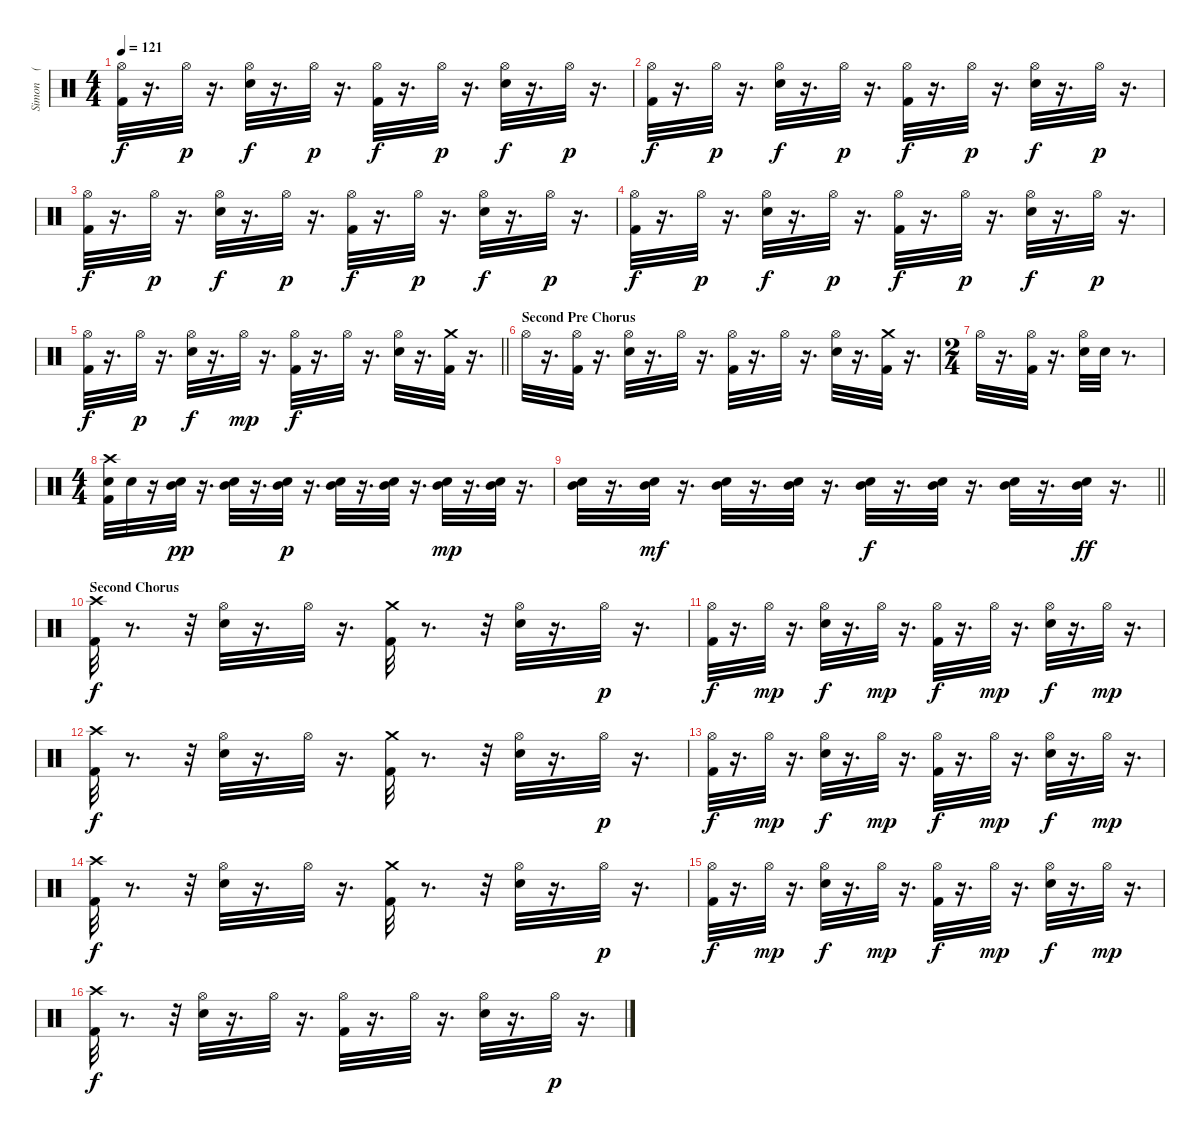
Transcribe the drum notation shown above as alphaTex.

\track ("Simon    (Drums)" "Simon    (") {instrument percussion}
\staff {score}
\articulation defaults
\ts (4 4)
\tempo 121
\clef neutral
\ks c
("Hi-Hat (open)" "Kick (hit) 2").32{dy f} r.16{d} "Hi-Hat (open)".32{dy p} r.16{d} ("Hi-Hat (open)" "Electric Snare (hit)").32{dy f} r.16{d} "Hi-Hat (open)".32{dy p} r.16{d} ("Hi-Hat (open)" "Kick (hit) 2").32{dy f} r.16{d} "Hi-Hat (open)".32{dy p} r.16{d} ("Hi-Hat (open)" "Electric Snare (hit)").32{dy f} r.16{d} "Hi-Hat (open)".32{dy p} r.16{d} |
("Hi-Hat (open)" "Kick (hit) 2").32{dy f} r.16{d} "Hi-Hat (open)".32{dy p} r.16{d} ("Hi-Hat (open)" "Electric Snare (hit)").32{dy f} r.16{d} "Hi-Hat (open)".32{dy p} r.16{d} ("Hi-Hat (open)" "Kick (hit) 2").32{dy f} r.16{d} "Hi-Hat (open)".32{dy p} r.16{d} ("Hi-Hat (open)" "Electric Snare (hit)").32{dy f} r.16{d} "Hi-Hat (open)".32{dy p} r.16{d} |
("Hi-Hat (open)" "Kick (hit) 2").32{dy f} r.16{d} "Hi-Hat (open)".32{dy p} r.16{d} ("Hi-Hat (open)" "Electric Snare (hit)").32{dy f} r.16{d} "Hi-Hat (open)".32{dy p} r.16{d} ("Hi-Hat (open)" "Kick (hit) 2").32{dy f} r.16{d} "Hi-Hat (open)".32{dy p} r.16{d} ("Hi-Hat (open)" "Electric Snare (hit)").32{dy f} r.16{d} "Hi-Hat (open)".32{dy p} r.16{d} |
("Hi-Hat (open)" "Kick (hit) 2").32{dy f} r.16{d} "Hi-Hat (open)".32{dy p} r.16{d} ("Hi-Hat (open)" "Electric Snare (hit)").32{dy f} r.16{d} "Hi-Hat (open)".32{dy p} r.16{d} ("Hi-Hat (open)" "Kick (hit) 2").32{dy f} r.16{d} "Hi-Hat (open)".32{dy p} r.16{d} ("Hi-Hat (open)" "Electric Snare (hit)").32{dy f} r.16{d} "Hi-Hat (open)".32{dy p} r.16{d} |
\barLineRight lightlight
("Hi-Hat (open)" "Kick (hit) 2").32{dy f} r.16{d} "Hi-Hat (open)".32{dy p} r.16{d} ("Hi-Hat (open)" "Electric Snare (hit)").32{dy f} r.16{d} "Hi-Hat (open)".32{dy mp} r.16{d} ("Hi-Hat (open)" "Kick (hit) 2").32{dy f} r.16{d} "Hi-Hat (open)".32 r.16{d} ("Hi-Hat (open)" "Electric Snare (hit)").32 r.16{d} ("Crash medium (hit)" "Kick (hit) 2").32 r.16{d} |
\section ("" "Second Pre Chorus")
"Hi-Hat (open)".32 r.16{d} ("Kick (hit) 2" "Hi-Hat (open)").32 r.16{d} ("Hi-Hat (open)" "Electric Snare (hit)").32 r.16{d} "Hi-Hat (open)".32 r.16{d} ("Hi-Hat (open)" "Kick (hit) 2").32 r.16{d} "Hi-Hat (open)".32 r.16{d} ("Hi-Hat (open)" "Electric Snare (hit)").32 r.16{d} ("Crash medium (hit)" "Kick (hit) 2").32 r.16{d} |
\ts (2 4)
"Hi-Hat (open)".32 r.16{d} ("Kick (hit) 2" "Hi-Hat (open)").32 r.16{d} ("Electric Snare (hit)" "Hi-Hat (open)").32 "Snare (hit) 2".32 r.8{d} |
\ts (4 4)
("Crash high (hit)" "Kick (hit) 2" "Electric Snare (hit)").32 "Snare (hit) 2".32 r.16 ("Mid Tom (hit)" "Electric Snare (hit)").32{dy pp} r.16{d} ("Mid Tom (hit)" "Electric Snare (hit)").32 r.16{d} ("Mid Tom (hit)" "Electric Snare (hit)").32{dy p} r.16{d} ("Mid Tom (hit)" "Electric Snare (hit)").32 r.16{d} ("Mid Tom (hit)" "Electric Snare (hit)").32 r.16{d} ("Mid Tom (hit)" "Electric Snare (hit)").32{dy mp} r.16{d} ("Mid Tom (hit)" "Electric Snare (hit)").32 r.16{d} |
\barLineRight lightlight
("Mid Tom (hit)" "Electric Snare (hit)").32 r.16{d} ("Mid Tom (hit)" "Electric Snare (hit)").32{dy mf} r.16{d} ("Mid Tom (hit)" "Electric Snare (hit)").32 r.16{d} ("Mid Tom (hit)" "Electric Snare (hit)").32 r.16{d} ("Mid Tom (hit)" "Electric Snare (hit)").32{dy f} r.16{d} ("Mid Tom (hit)" "Electric Snare (hit)").32 r.16{d} ("Mid Tom (hit)" "Electric Snare (hit)").32 r.16{d} ("Mid Tom (hit)" "Electric Snare (hit)").32{dy ff} r.16{d} |
\section ("" "Second Chorus")
("Kick (hit) 2" "Crash high (hit)").32{dy f} r.8{d} r.32 ("Electric Snare (hit)" "Hi-Hat (open)").32 r.16{d} "Hi-Hat (open)".32 r.16{d} ("Kick (hit) 2" "Crash medium (hit)").32 r.8{d} r.32 ("Hi-Hat (open)" "Electric Snare (hit)").32 r.16{d} "Hi-Hat (open)".32{dy p} r.16{d} |
("Hi-Hat (open)" "Kick (hit) 2").32{dy f} r.16{d} "Hi-Hat (open)".32{dy mp} r.16{d} ("Hi-Hat (open)" "Electric Snare (hit)").32{dy f} r.16{d} "Hi-Hat (open)".32{dy mp} r.16{d} ("Hi-Hat (open)" "Kick (hit) 2").32{dy f} r.16{d} "Hi-Hat (open)".32{dy mp} r.16{d} ("Hi-Hat (open)" "Electric Snare (hit)").32{dy f} r.16{d} "Hi-Hat (open)".32{dy mp} r.16{d} |
("Kick (hit) 2" "Crash high (hit)").32{dy f} r.8{d} r.32 ("Electric Snare (hit)" "Hi-Hat (open)").32 r.16{d} "Hi-Hat (open)".32 r.16{d} ("Kick (hit) 2" "Crash medium (hit)").32 r.8{d} r.32 ("Hi-Hat (open)" "Electric Snare (hit)").32 r.16{d} "Hi-Hat (open)".32{dy p} r.16{d} |
("Hi-Hat (open)" "Kick (hit) 2").32{dy f} r.16{d} "Hi-Hat (open)".32{dy mp} r.16{d} ("Hi-Hat (open)" "Electric Snare (hit)").32{dy f} r.16{d} "Hi-Hat (open)".32{dy mp} r.16{d} ("Hi-Hat (open)" "Kick (hit) 2").32{dy f} r.16{d} "Hi-Hat (open)".32{dy mp} r.16{d} ("Hi-Hat (open)" "Electric Snare (hit)").32{dy f} r.16{d} "Hi-Hat (open)".32{dy mp} r.16{d} |
("Kick (hit) 2" "Crash high (hit)").32{dy f} r.8{d} r.32 ("Electric Snare (hit)" "Hi-Hat (open)").32 r.16{d} "Hi-Hat (open)".32 r.16{d} ("Kick (hit) 2" "Crash medium (hit)").32 r.8{d} r.32 ("Hi-Hat (open)" "Electric Snare (hit)").32 r.16{d} "Hi-Hat (open)".32{dy p} r.16{d} |
("Hi-Hat (open)" "Kick (hit) 2").32{dy f} r.16{d} "Hi-Hat (open)".32{dy mp} r.16{d} ("Hi-Hat (open)" "Electric Snare (hit)").32{dy f} r.16{d} "Hi-Hat (open)".32{dy mp} r.16{d} ("Hi-Hat (open)" "Kick (hit) 2").32{dy f} r.16{d} "Hi-Hat (open)".32{dy mp} r.16{d} ("Hi-Hat (open)" "Electric Snare (hit)").32{dy f} r.16{d} "Hi-Hat (open)".32{dy mp} r.16{d} |
("Kick (hit) 2" "Crash high (hit)").32{dy f} r.8{d} r.32 ("Electric Snare (hit)" "Hi-Hat (open)").32 r.16{d} "Hi-Hat (open)".32 r.16{d} ("Hi-Hat (open)" "Kick (hit) 2").32 r.16{d} "Hi-Hat (open)".32 r.16{d} ("Hi-Hat (open)" "Electric Snare (hit)").32 r.16{d} "Hi-Hat (open)".32{dy p} r.16{d}
